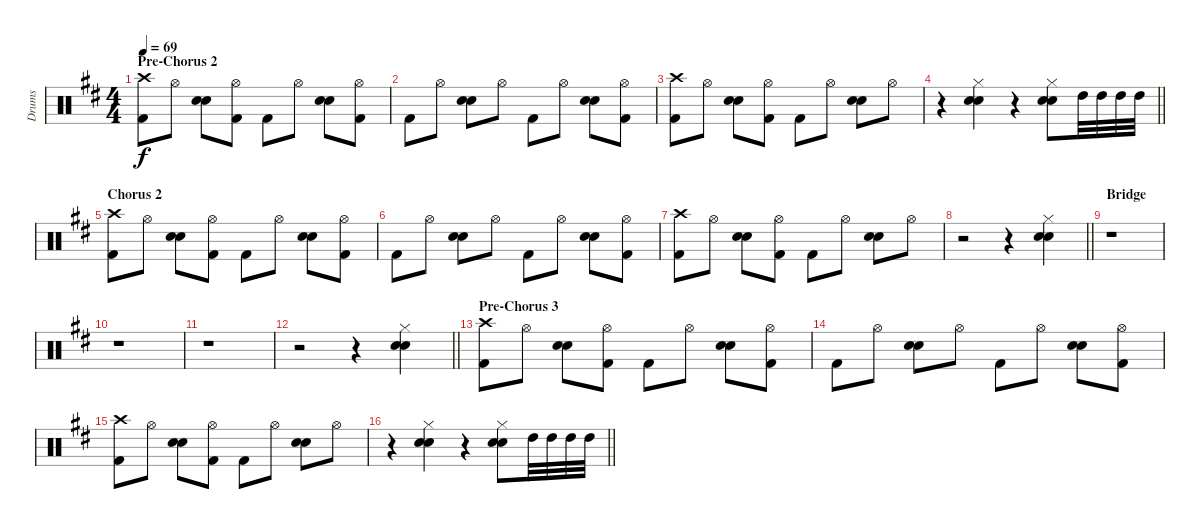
\track ("Drums" "Drums") {instrument percussion}
\staff {score}
\articulation defaults
\ts (4 4)
\section ("" "Pre-Chorus 2")
\tempo 69
\clef neutral
\ks d
("Crash high (hit)" "Kick (hit) 2").8{dy f} "Hi-Hat (open)".8 ("Hand Clap (hit)" "Snare (hit) 2").8 ("Hi-Hat (open)" "Kick (hit) 2").8 "Kick (hit) 2".8 "Hi-Hat (open)".8 ("Hand Clap (hit)" "Snare (hit) 2").8 ("Hi-Hat (open)" "Kick (hit) 2").8 |
"Kick (hit) 2".8 "Hi-Hat (open)".8 ("Hand Clap (hit)" "Snare (hit) 2").8 "Hi-Hat (open)".8 "Kick (hit) 2".8 "Hi-Hat (open)".8 ("Hand Clap (hit)" "Snare (hit) 2").8 ("Hi-Hat (open)" "Kick (hit) 2").8 |
("Crash high (hit)" "Kick (hit) 2").8 "Hi-Hat (open)".8 ("Hand Clap (hit)" "Snare (hit) 2").8 ("Hi-Hat (open)" "Kick (hit) 2").8 "Kick (hit) 2".8 "Hi-Hat (open)".8 ("Hand Clap (hit)" "Snare (hit) 2").8 "Hi-Hat (open)".8 |
\barLineRight lightlight
r.4 ("Hi-Hat (closed)" "Hand Clap (hit)" "Snare (hit) 2").4 r.4 ("Hi-Hat (closed)" "Hand Clap (hit)" "Snare (hit) 2").8 "High Tom (hit)".32 "High Tom (hit)".32 "High Tom (hit)".32 "High Tom (hit)".32 |
\section ("" "Chorus 2")
("Crash high (hit)" "Kick (hit) 2").8 "Hi-Hat (open)".8 ("Hand Clap (hit)" "Snare (hit) 2").8 ("Hi-Hat (open)" "Kick (hit) 2").8 "Kick (hit) 2".8 "Hi-Hat (open)".8 ("Hand Clap (hit)" "Snare (hit) 2").8 ("Hi-Hat (open)" "Kick (hit) 2").8 |
"Kick (hit) 2".8 "Hi-Hat (open)".8 ("Hand Clap (hit)" "Snare (hit) 2").8 "Hi-Hat (open)".8 "Kick (hit) 2".8 "Hi-Hat (open)".8 ("Hand Clap (hit)" "Snare (hit) 2").8 ("Hi-Hat (open)" "Kick (hit) 2").8 |
("Crash high (hit)" "Kick (hit) 2").8 "Hi-Hat (open)".8 ("Hand Clap (hit)" "Snare (hit) 2").8 ("Hi-Hat (open)" "Kick (hit) 2").8 "Kick (hit) 2".8 "Hi-Hat (open)".8 ("Hand Clap (hit)" "Snare (hit) 2").8 "Hi-Hat (open)".8 |
\barLineRight lightlight
r.2 r.4 ("Hi-Hat (closed)" "Hand Clap (hit)" "Snare (hit) 2").4 |
\section ("" "Bridge")
\ks bminor
r.1 |
r.1 |
\ks d
r.1 |
\barLineRight lightlight
r.2 r.4 ("Hi-Hat (closed)" "Hand Clap (hit)" "Snare (hit) 2").4 |
\section ("" "Pre-Chorus 3")
("Crash high (hit)" "Kick (hit) 2").8 "Hi-Hat (open)".8 ("Hand Clap (hit)" "Snare (hit) 2").8 ("Hi-Hat (open)" "Kick (hit) 2").8 "Kick (hit) 2".8 "Hi-Hat (open)".8 ("Hand Clap (hit)" "Snare (hit) 2").8 ("Hi-Hat (open)" "Kick (hit) 2").8 |
"Kick (hit) 2".8 "Hi-Hat (open)".8 ("Hand Clap (hit)" "Snare (hit) 2").8 "Hi-Hat (open)".8 "Kick (hit) 2".8 "Hi-Hat (open)".8 ("Hand Clap (hit)" "Snare (hit) 2").8 ("Hi-Hat (open)" "Kick (hit) 2").8 |
("Crash high (hit)" "Kick (hit) 2").8 "Hi-Hat (open)".8 ("Hand Clap (hit)" "Snare (hit) 2").8 ("Hi-Hat (open)" "Kick (hit) 2").8 "Kick (hit) 2".8 "Hi-Hat (open)".8 ("Hand Clap (hit)" "Snare (hit) 2").8 "Hi-Hat (open)".8 |
\barLineRight lightlight
r.4 ("Hi-Hat (closed)" "Hand Clap (hit)" "Snare (hit) 2").4 r.4 ("Hi-Hat (closed)" "Hand Clap (hit)" "Snare (hit) 2").8 "High Tom (hit)".32 "High Tom (hit)".32 "High Tom (hit)".32 "High Tom (hit)".32
